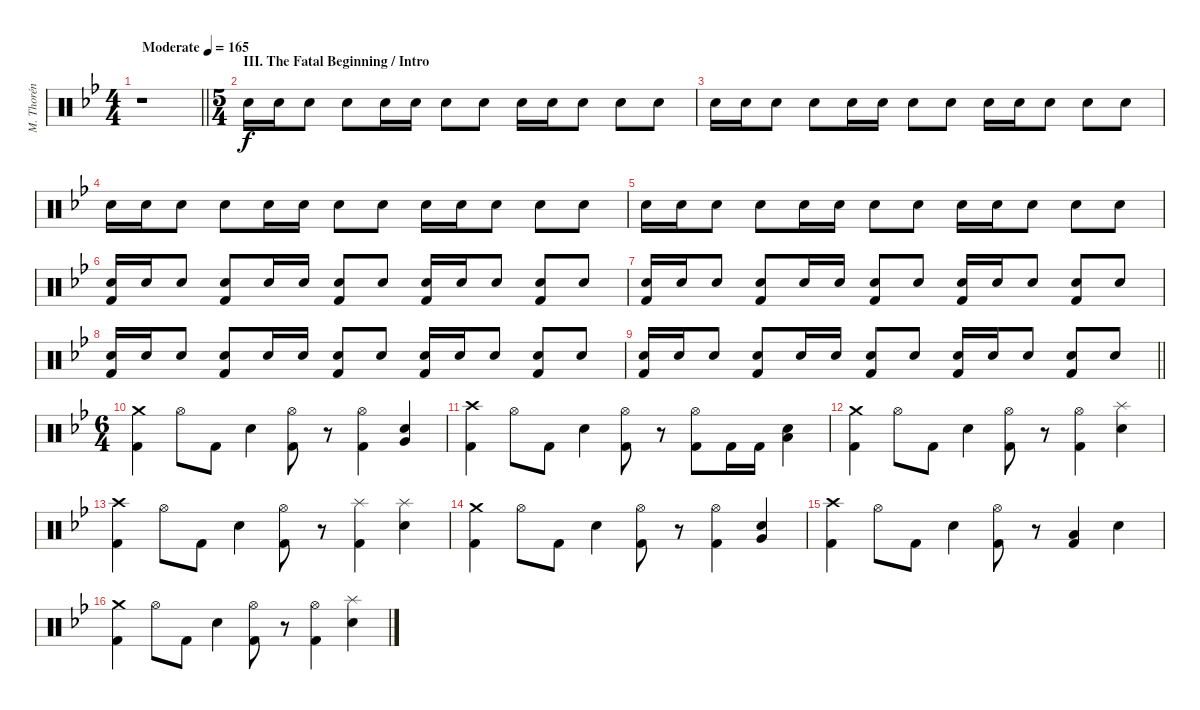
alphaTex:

\track ("M. Thorén (Drums)" "M. Thorén ") {instrument percussion}
\staff {score}
\articulation defaults
\ts (4 4)
\tempo (165 "Moderate")
\clef neutral
\barLineRight lightlight
\ks gminor
r.1{dy f} |
\ts (5 4)
\section ("" "III. The Fatal Beginning / Intro")
"Electric Snare (hit)".16 "Electric Snare (hit)".16 "Electric Snare (hit)".8 "Electric Snare (hit)".8 "Electric Snare (hit)".16 "Electric Snare (hit)".16 "Electric Snare (hit)".8 "Electric Snare (hit)".8 "Electric Snare (hit)".16 "Electric Snare (hit)".16 "Electric Snare (hit)".8 "Electric Snare (hit)".8 "Electric Snare (hit)".8 |
"Electric Snare (hit)".16 "Electric Snare (hit)".16 "Electric Snare (hit)".8 "Electric Snare (hit)".8 "Electric Snare (hit)".16 "Electric Snare (hit)".16 "Electric Snare (hit)".8 "Electric Snare (hit)".8 "Electric Snare (hit)".16 "Electric Snare (hit)".16 "Electric Snare (hit)".8 "Electric Snare (hit)".8 "Electric Snare (hit)".8 |
"Electric Snare (hit)".16 "Electric Snare (hit)".16 "Electric Snare (hit)".8 "Electric Snare (hit)".8 "Electric Snare (hit)".16 "Electric Snare (hit)".16 "Electric Snare (hit)".8 "Electric Snare (hit)".8 "Electric Snare (hit)".16 "Electric Snare (hit)".16 "Electric Snare (hit)".8 "Electric Snare (hit)".8 "Electric Snare (hit)".8 |
"Electric Snare (hit)".16 "Electric Snare (hit)".16 "Electric Snare (hit)".8 "Electric Snare (hit)".8 "Electric Snare (hit)".16 "Electric Snare (hit)".16 "Electric Snare (hit)".8 "Electric Snare (hit)".8 "Electric Snare (hit)".16 "Electric Snare (hit)".16 "Electric Snare (hit)".8 "Electric Snare (hit)".8 "Electric Snare (hit)".8 |
("Electric Snare (hit)" "Kick (hit) 2").16 "Electric Snare (hit)".16 "Electric Snare (hit)".8 ("Electric Snare (hit)" "Kick (hit) 2").8 "Electric Snare (hit)".16 "Electric Snare (hit)".16 ("Electric Snare (hit)" "Kick (hit) 2").8 "Electric Snare (hit)".8 ("Electric Snare (hit)" "Kick (hit) 2").16 "Electric Snare (hit)".16 "Electric Snare (hit)".8 ("Electric Snare (hit)" "Kick (hit) 2").8 "Electric Snare (hit)".8 |
("Electric Snare (hit)" "Kick (hit) 2").16 "Electric Snare (hit)".16 "Electric Snare (hit)".8 ("Electric Snare (hit)" "Kick (hit) 2").8 "Electric Snare (hit)".16 "Electric Snare (hit)".16 ("Electric Snare (hit)" "Kick (hit) 2").8 "Electric Snare (hit)".8 ("Electric Snare (hit)" "Kick (hit) 2").16 "Electric Snare (hit)".16 "Electric Snare (hit)".8 ("Electric Snare (hit)" "Kick (hit) 2").8 "Electric Snare (hit)".8 |
("Electric Snare (hit)" "Kick (hit) 2").16 "Electric Snare (hit)".16 "Electric Snare (hit)".8 ("Electric Snare (hit)" "Kick (hit) 2").8 "Electric Snare (hit)".16 "Electric Snare (hit)".16 ("Electric Snare (hit)" "Kick (hit) 2").8 "Electric Snare (hit)".8 ("Electric Snare (hit)" "Kick (hit) 2").16 "Electric Snare (hit)".16 "Electric Snare (hit)".8 ("Electric Snare (hit)" "Kick (hit) 2").8 "Electric Snare (hit)".8 |
\barLineRight lightlight
("Electric Snare (hit)" "Kick (hit) 2").16 "Electric Snare (hit)".16 "Electric Snare (hit)".8 ("Electric Snare (hit)" "Kick (hit) 2").8 "Electric Snare (hit)".16 "Electric Snare (hit)".16 ("Electric Snare (hit)" "Kick (hit) 2").8 "Electric Snare (hit)".8 ("Electric Snare (hit)" "Kick (hit) 2").16 "Electric Snare (hit)".16 "Electric Snare (hit)".8 ("Electric Snare (hit)" "Kick (hit) 2").8 "Electric Snare (hit)".8 |
\ts (6 4)
("Crash medium (hit)" "Kick (hit) 2").4 "Hi-Hat (open)".8 "Kick (hit) 2".8 "Electric Snare (hit)".4 ("Hi-Hat (open)" "Kick (hit) 2").8 r.8 ("Hi-Hat (open)" "Kick (hit) 2").4 ("Electric Snare (hit)" "Very Low Tom (hit)").4 |
("Crash high (hit)" "Kick (hit) 2").4 "Hi-Hat (open)".8 "Kick (hit) 2".8 "Electric Snare (hit)".4 ("Hi-Hat (open)" "Kick (hit) 2").8 r.8 ("Hi-Hat (open)" "Kick (hit) 2").8 "Kick (hit) 2".16 "Kick (hit) 2".16 ("Electric Snare (hit)" "Low Tom (hit)").4 |
("Crash medium (hit)" "Kick (hit) 2").4 "Hi-Hat (open)".8 "Kick (hit) 2".8 "Electric Snare (hit)".4 ("Hi-Hat (open)" "Kick (hit) 2").8 r.8 ("Hi-Hat (open)" "Kick (hit) 2").4 ("Splash (hit)" "Electric Snare (hit)").4 |
("Crash high (hit)" "Kick (hit) 2").4 "Hi-Hat (open)".8 "Kick (hit) 2".8 "Electric Snare (hit)".4 ("Hi-Hat (open)" "Kick (hit) 2").8 r.8 ("Splash (hit)" "Kick (hit) 2").4 ("Splash (hit)" "Electric Snare (hit)").4 |
("Crash medium (hit)" "Kick (hit) 2").4 "Hi-Hat (open)".8 "Kick (hit) 2".8 "Electric Snare (hit)".4 ("Hi-Hat (open)" "Kick (hit) 2").8 r.8 ("Hi-Hat (open)" "Kick (hit) 2").4 ("Electric Snare (hit)" "Very Low Tom (hit)").4 |
("Crash high (hit)" "Kick (hit) 2").4 "Hi-Hat (open)".8 "Kick (hit) 2".8 "Electric Snare (hit)".4 ("Hi-Hat (open)" "Kick (hit) 2").8 r.8 ("Low Tom (hit)" "Kick (hit) 2").4 "Electric Snare (hit)".4 |
("Crash medium (hit)" "Kick (hit) 2").4 "Hi-Hat (open)".8 "Kick (hit) 2".8 "Electric Snare (hit)".4 ("Hi-Hat (open)" "Kick (hit) 2").8 r.8 ("Hi-Hat (open)" "Kick (hit) 2").4 ("Splash (hit)" "Electric Snare (hit)").4
